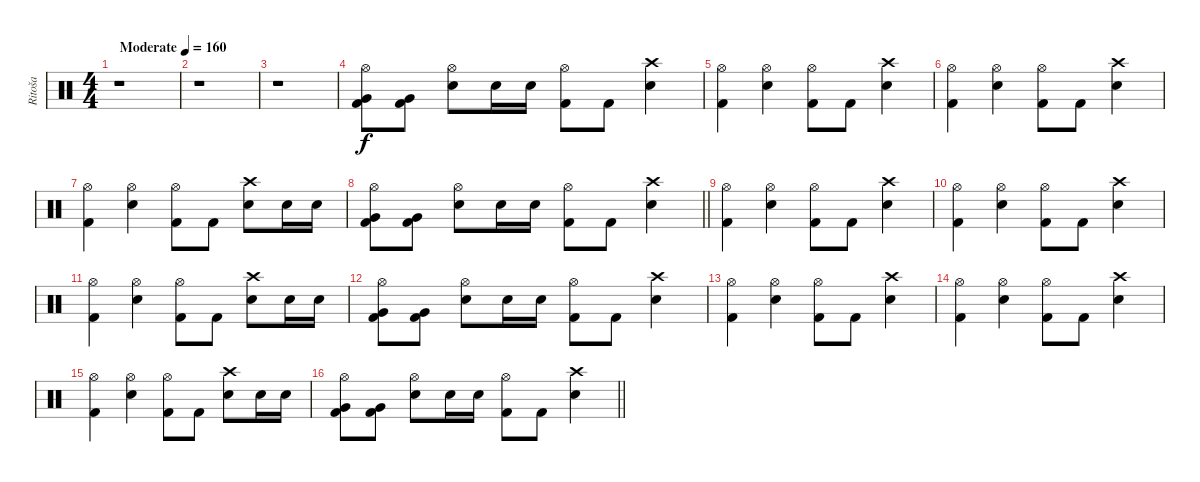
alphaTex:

\track ("Ritoša" "Ritoša") {instrument percussion}
\staff {score}
\articulation defaults
\ts (4 4)
\tempo (160 "Moderate")
\clef neutral
\ks c
r.1{dy f} |
r.1 |
r.1 |
("Hi-Hat (open)" "Very Low Tom (hit)" "Kick (hit) 2").8 ("Very Low Tom (hit)" "Kick (hit) 2").8 ("Hi-Hat (open)" "Electric Snare (hit)").8 "Electric Snare (hit)".16 "Electric Snare (hit)".16 ("Hi-Hat (open)" "Kick (hit) 2").8 "Kick (hit) 2".8 ("Crash high (hit)" "Electric Snare (hit)").4 |
("Hi-Hat (open)" "Kick (hit) 2").4 ("Hi-Hat (open)" "Electric Snare (hit)").4 ("Hi-Hat (open)" "Kick (hit) 2").8 "Kick (hit) 2".8 ("Crash high (hit)" "Electric Snare (hit)").4 |
("Hi-Hat (open)" "Kick (hit) 2").4 ("Hi-Hat (open)" "Electric Snare (hit)").4 ("Hi-Hat (open)" "Kick (hit) 2").8 "Kick (hit) 2".8 ("Crash high (hit)" "Electric Snare (hit)").4 |
("Hi-Hat (open)" "Kick (hit) 2").4 ("Hi-Hat (open)" "Electric Snare (hit)").4 ("Hi-Hat (open)" "Kick (hit) 2").8 "Kick (hit) 2".8 ("Crash high (hit)" "Electric Snare (hit)").8 "Electric Snare (hit)".16 "Electric Snare (hit)".16 |
\barLineRight lightlight
("Hi-Hat (open)" "Very Low Tom (hit)" "Kick (hit) 2").8 ("Very Low Tom (hit)" "Kick (hit) 2").8 ("Hi-Hat (open)" "Electric Snare (hit)").8 "Electric Snare (hit)".16 "Electric Snare (hit)".16 ("Hi-Hat (open)" "Kick (hit) 2").8 "Kick (hit) 2".8 ("Crash high (hit)" "Electric Snare (hit)").4 |
("Hi-Hat (open)" "Kick (hit) 2").4 ("Hi-Hat (open)" "Electric Snare (hit)").4 ("Hi-Hat (open)" "Kick (hit) 2").8 "Kick (hit) 2".8 ("Crash high (hit)" "Electric Snare (hit)").4 |
("Hi-Hat (open)" "Kick (hit) 2").4 ("Hi-Hat (open)" "Electric Snare (hit)").4 ("Hi-Hat (open)" "Kick (hit) 2").8 "Kick (hit) 2".8 ("Crash high (hit)" "Electric Snare (hit)").4 |
("Hi-Hat (open)" "Kick (hit) 2").4 ("Hi-Hat (open)" "Electric Snare (hit)").4 ("Hi-Hat (open)" "Kick (hit) 2").8 "Kick (hit) 2".8 ("Crash high (hit)" "Electric Snare (hit)").8 "Electric Snare (hit)".16 "Electric Snare (hit)".16 |
("Hi-Hat (open)" "Very Low Tom (hit)" "Kick (hit) 2").8 ("Very Low Tom (hit)" "Kick (hit) 2").8 ("Hi-Hat (open)" "Electric Snare (hit)").8 "Electric Snare (hit)".16 "Electric Snare (hit)".16 ("Hi-Hat (open)" "Kick (hit) 2").8 "Kick (hit) 2".8 ("Crash high (hit)" "Electric Snare (hit)").4 |
("Hi-Hat (open)" "Kick (hit) 2").4 ("Hi-Hat (open)" "Electric Snare (hit)").4 ("Hi-Hat (open)" "Kick (hit) 2").8 "Kick (hit) 2".8 ("Crash high (hit)" "Electric Snare (hit)").4 |
("Hi-Hat (open)" "Kick (hit) 2").4 ("Hi-Hat (open)" "Electric Snare (hit)").4 ("Hi-Hat (open)" "Kick (hit) 2").8 "Kick (hit) 2".8 ("Crash high (hit)" "Electric Snare (hit)").4 |
("Hi-Hat (open)" "Kick (hit) 2").4 ("Hi-Hat (open)" "Electric Snare (hit)").4 ("Hi-Hat (open)" "Kick (hit) 2").8 "Kick (hit) 2".8 ("Crash high (hit)" "Electric Snare (hit)").8 "Electric Snare (hit)".16 "Electric Snare (hit)".16 |
\barLineRight lightlight
("Hi-Hat (open)" "Very Low Tom (hit)" "Kick (hit) 2").8 ("Very Low Tom (hit)" "Kick (hit) 2").8 ("Hi-Hat (open)" "Electric Snare (hit)").8 "Electric Snare (hit)".16 "Electric Snare (hit)".16 ("Hi-Hat (open)" "Kick (hit) 2").8 "Kick (hit) 2".8 ("Crash high (hit)" "Electric Snare (hit)").4
